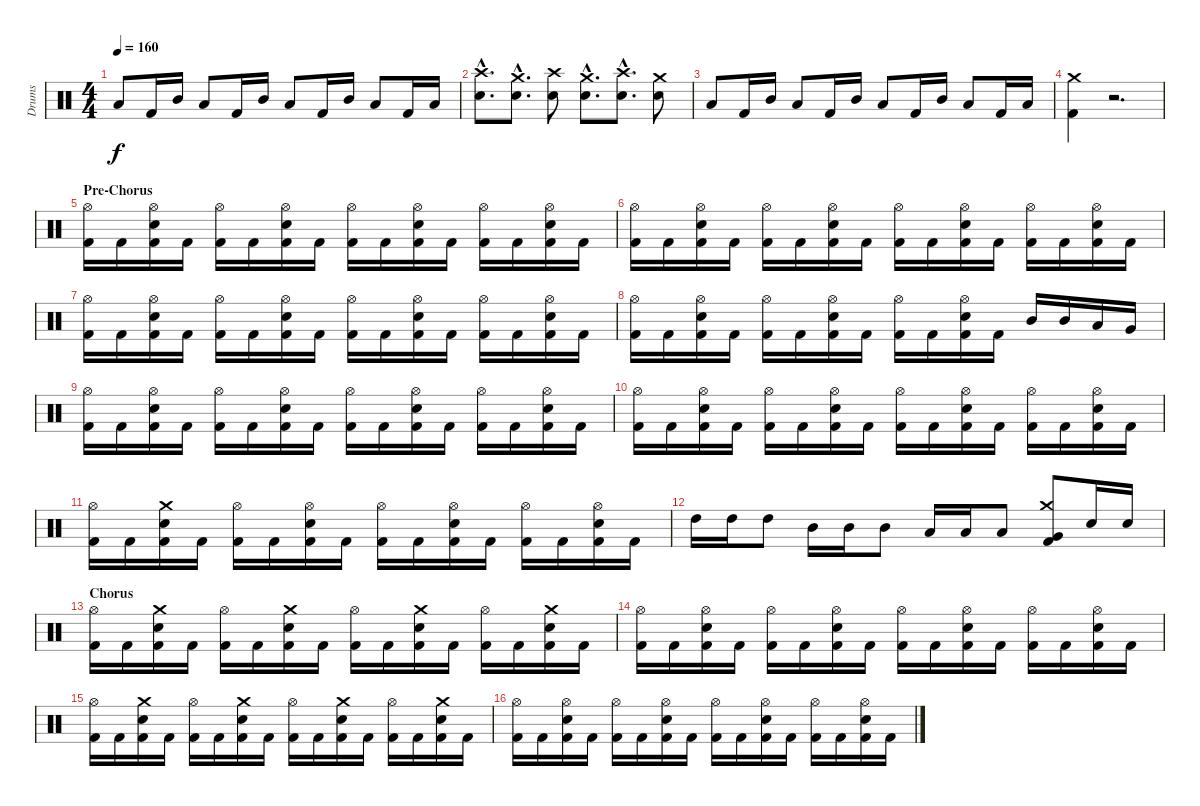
\track ("Drums" "Drums") {instrument percussion}
\staff {score}
\articulation defaults
\ts (4 4)
\tempo 160
\clef neutral
\ks c "Low Tom (hit)".8{dy f} "Kick (hit) 2".16 "Mid Tom (hit)".16 "Low Tom (hit)".8 "Kick (hit) 2".16 "Mid Tom (hit)".16 "Low Tom (hit)".8 "Kick (hit) 2".16 "Mid Tom (hit)".16 "Low Tom (hit)".8 "Kick (hit) 2".16 "Low Tom (hit)".16
|
("Crash high (hit)"{hac} "Electric Snare (hit)"{hac}).8{d} ("Crash medium (hit)"{hac} "Electric Snare (hit)"{hac}).8{d} ("Crash high (hit)" "Electric Snare (hit)").8 ("Crash medium (hit)"{hac} "Electric Snare (hit)"{hac}).8{d} ("Crash high (hit)"{hac} "Electric Snare (hit)"{hac}).8{d} ("Crash medium (hit)" "Electric Snare (hit)").8 |
"Low Tom (hit)".8 "Kick (hit) 2".16 "Mid Tom (hit)".16 "Low Tom (hit)".8 "Kick (hit) 2".16 "Mid Tom (hit)".16 "Low Tom (hit)".8 "Kick (hit) 2".16 "Mid Tom (hit)".16 "Low Tom (hit)".8 "Kick (hit) 2".16 "Low Tom (hit)".16 |
("Crash medium (hit)" "Kick (hit) 2").4 r.2{d} |
\section ("" "Pre-Chorus")
("Hi-Hat (open)" "Kick (hit) 2").16 "Kick (hit) 2".16 ("Hi-Hat (open)" "Electric Snare (hit)" "Kick (hit) 2").16 "Kick (hit) 2".16 ("Hi-Hat (open)" "Kick (hit) 2").16 "Kick (hit) 2".16 ("Hi-Hat (open)" "Electric Snare (hit)" "Kick (hit) 2").16 "Kick (hit) 2".16 ("Hi-Hat (open)" "Kick (hit) 2").16 "Kick (hit) 2".16 ("Hi-Hat (open)" "Electric Snare (hit)" "Kick (hit) 2").16 "Kick (hit) 2".16 ("Hi-Hat (open)" "Kick (hit) 2").16 "Kick (hit) 2".16 ("Hi-Hat (open)" "Electric Snare (hit)" "Kick (hit) 2").16 "Kick (hit) 2".16 |
("Hi-Hat (open)" "Kick (hit) 2").16 "Kick (hit) 2".16 ("Hi-Hat (open)" "Electric Snare (hit)" "Kick (hit) 2").16 "Kick (hit) 2".16 ("Hi-Hat (open)" "Kick (hit) 2").16 "Kick (hit) 2".16 ("Hi-Hat (open)" "Electric Snare (hit)" "Kick (hit) 2").16 "Kick (hit) 2".16 ("Hi-Hat (open)" "Kick (hit) 2").16 "Kick (hit) 2".16 ("Hi-Hat (open)" "Electric Snare (hit)" "Kick (hit) 2").16 "Kick (hit) 2".16 ("Hi-Hat (open)" "Kick (hit) 2").16 "Kick (hit) 2".16 ("Hi-Hat (open)" "Electric Snare (hit)" "Kick (hit) 2").16 "Kick (hit) 2".16 |
("Hi-Hat (open)" "Kick (hit) 2").16 "Kick (hit) 2".16 ("Hi-Hat (open)" "Electric Snare (hit)" "Kick (hit) 2").16 "Kick (hit) 2".16 ("Hi-Hat (open)" "Kick (hit) 2").16 "Kick (hit) 2".16 ("Hi-Hat (open)" "Electric Snare (hit)" "Kick (hit) 2").16 "Kick (hit) 2".16 ("Hi-Hat (open)" "Kick (hit) 2").16 "Kick (hit) 2".16 ("Hi-Hat (open)" "Electric Snare (hit)" "Kick (hit) 2").16 "Kick (hit) 2".16 ("Hi-Hat (open)" "Kick (hit) 2").16 "Kick (hit) 2".16 ("Hi-Hat (open)" "Electric Snare (hit)" "Kick (hit) 2").16 "Kick (hit) 2".16 |
("Hi-Hat (open)" "Kick (hit) 2").16 "Kick (hit) 2".16 ("Hi-Hat (open)" "Electric Snare (hit)" "Kick (hit) 2").16 "Kick (hit) 2".16 ("Hi-Hat (open)" "Kick (hit) 2").16 "Kick (hit) 2".16 ("Hi-Hat (open)" "Electric Snare (hit)" "Kick (hit) 2").16 "Kick (hit) 2".16 ("Hi-Hat (open)" "Kick (hit) 2").16 "Kick (hit) 2".16 ("Hi-Hat (open)" "Electric Snare (hit)" "Kick (hit) 2").16 "Kick (hit) 2".16 "Mid Tom (hit)".16 "Mid Tom (hit)".16 "Low Tom (hit)".16 "Very Low Tom (hit)".16 |
("Hi-Hat (open)" "Kick (hit) 2").16 "Kick (hit) 2".16 ("Hi-Hat (open)" "Electric Snare (hit)" "Kick (hit) 2").16 "Kick (hit) 2".16 ("Hi-Hat (open)" "Kick (hit) 2").16 "Kick (hit) 2".16 ("Hi-Hat (open)" "Electric Snare (hit)" "Kick (hit) 2").16 "Kick (hit) 2".16 ("Hi-Hat (open)" "Kick (hit) 2").16 "Kick (hit) 2".16 ("Hi-Hat (open)" "Electric Snare (hit)" "Kick (hit) 2").16 "Kick (hit) 2".16 ("Hi-Hat (open)" "Kick (hit) 2").16 "Kick (hit) 2".16 ("Hi-Hat (open)" "Electric Snare (hit)" "Kick (hit) 2").16 "Kick (hit) 2".16 |
("Hi-Hat (open)" "Kick (hit) 2").16 "Kick (hit) 2".16 ("Hi-Hat (open)" "Electric Snare (hit)" "Kick (hit) 2").16 "Kick (hit) 2".16 ("Hi-Hat (open)" "Kick (hit) 2").16 "Kick (hit) 2".16 ("Hi-Hat (open)" "Electric Snare (hit)" "Kick (hit) 2").16 "Kick (hit) 2".16 ("Hi-Hat (open)" "Kick (hit) 2").16 "Kick (hit) 2".16 ("Hi-Hat (open)" "Electric Snare (hit)" "Kick (hit) 2").16 "Kick (hit) 2".16 ("Hi-Hat (open)" "Kick (hit) 2").16 "Kick (hit) 2".16 ("Hi-Hat (open)" "Electric Snare (hit)" "Kick (hit) 2").16 "Kick (hit) 2".16 |
("Hi-Hat (open)" "Kick (hit) 2").16 "Kick (hit) 2".16 ("Crash medium (hit)" "Electric Snare (hit)" "Kick (hit) 2").16 "Kick (hit) 2".16 ("Hi-Hat (open)" "Kick (hit) 2").16 "Kick (hit) 2".16 ("Hi-Hat (open)" "Electric Snare (hit)" "Kick (hit) 2").16 "Kick (hit) 2".16 ("Hi-Hat (open)" "Kick (hit) 2").16 "Kick (hit) 2".16 ("Hi-Hat (open)" "Electric Snare (hit)" "Kick (hit) 2").16 "Kick (hit) 2".16 ("Hi-Hat (open)" "Kick (hit) 2").16 "Kick (hit) 2".16 ("Hi-Hat (open)" "Electric Snare (hit)" "Kick (hit) 2").16 "Kick (hit) 2".16 |
"High Tom (hit)".16 "High Tom (hit)".16 "High Tom (hit)".8 "Mid Tom (hit)".16 "Mid Tom (hit)".16 "Mid Tom (hit)".8 "Low Tom (hit)".16 "Low Tom (hit)".16 "Low Tom (hit)".8 ("Crash medium (hit)" "Very Low Tom (hit)" "Kick (hit) 2").8 "Electric Snare (hit)".16 "Electric Snare (hit)".16 |
\section ("" "Chorus")
("Hi-Hat (open)" "Kick (hit) 2").16 "Kick (hit) 2".16 ("Crash medium (hit)" "Electric Snare (hit)" "Kick (hit) 2").16 "Kick (hit) 2".16 ("Hi-Hat (open)" "Kick (hit) 2").16 "Kick (hit) 2".16 ("Crash medium (hit)" "Electric Snare (hit)" "Kick (hit) 2").16 "Kick (hit) 2".16 ("Hi-Hat (open)" "Kick (hit) 2").16 "Kick (hit) 2".16 ("Crash medium (hit)" "Electric Snare (hit)" "Kick (hit) 2").16 "Kick (hit) 2".16 ("Hi-Hat (open)" "Kick (hit) 2").16 "Kick (hit) 2".16 ("Crash medium (hit)" "Electric Snare (hit)" "Kick (hit) 2").16 "Kick (hit) 2".16 |
("Hi-Hat (open)" "Kick (hit) 2").16 "Kick (hit) 2".16 ("Hi-Hat (open)" "Electric Snare (hit)" "Kick (hit) 2").16 "Kick (hit) 2".16 ("Hi-Hat (open)" "Kick (hit) 2").16 "Kick (hit) 2".16 ("Hi-Hat (open)" "Electric Snare (hit)" "Kick (hit) 2").16 "Kick (hit) 2".16 ("Hi-Hat (open)" "Kick (hit) 2").16 "Kick (hit) 2".16 ("Hi-Hat (open)" "Electric Snare (hit)" "Kick (hit) 2").16 "Kick (hit) 2".16 ("Hi-Hat (open)" "Kick (hit) 2").16 "Kick (hit) 2".16 ("Hi-Hat (open)" "Electric Snare (hit)" "Kick (hit) 2").16 "Kick (hit) 2".16 |
("Hi-Hat (open)" "Kick (hit) 2").16 "Kick (hit) 2".16 ("Crash medium (hit)" "Electric Snare (hit)" "Kick (hit) 2").16 "Kick (hit) 2".16 ("Hi-Hat (open)" "Kick (hit) 2").16 "Kick (hit) 2".16 ("Crash medium (hit)" "Electric Snare (hit)" "Kick (hit) 2").16 "Kick (hit) 2".16 ("Hi-Hat (open)" "Kick (hit) 2").16 "Kick (hit) 2".16 ("Crash medium (hit)" "Electric Snare (hit)" "Kick (hit) 2").16 "Kick (hit) 2".16 ("Hi-Hat (open)" "Kick (hit) 2").16 "Kick (hit) 2".16 ("Crash medium (hit)" "Electric Snare (hit)" "Kick (hit) 2").16 "Kick (hit) 2".16 |
("Hi-Hat (open)" "Kick (hit) 2").16 "Kick (hit) 2".16 ("Hi-Hat (open)" "Electric Snare (hit)" "Kick (hit) 2").16 "Kick (hit) 2".16 ("Hi-Hat (open)" "Kick (hit) 2").16 "Kick (hit) 2".16 ("Hi-Hat (open)" "Electric Snare (hit)" "Kick (hit) 2").16 "Kick (hit) 2".16 ("Hi-Hat (open)" "Kick (hit) 2").16 "Kick (hit) 2".16 ("Hi-Hat (open)" "Electric Snare (hit)" "Kick (hit) 2").16 "Kick (hit) 2".16 ("Hi-Hat (open)" "Kick (hit) 2").16 "Kick (hit) 2".16 ("Hi-Hat (open)" "Electric Snare (hit)" "Kick (hit) 2").16 "Kick (hit) 2".16
